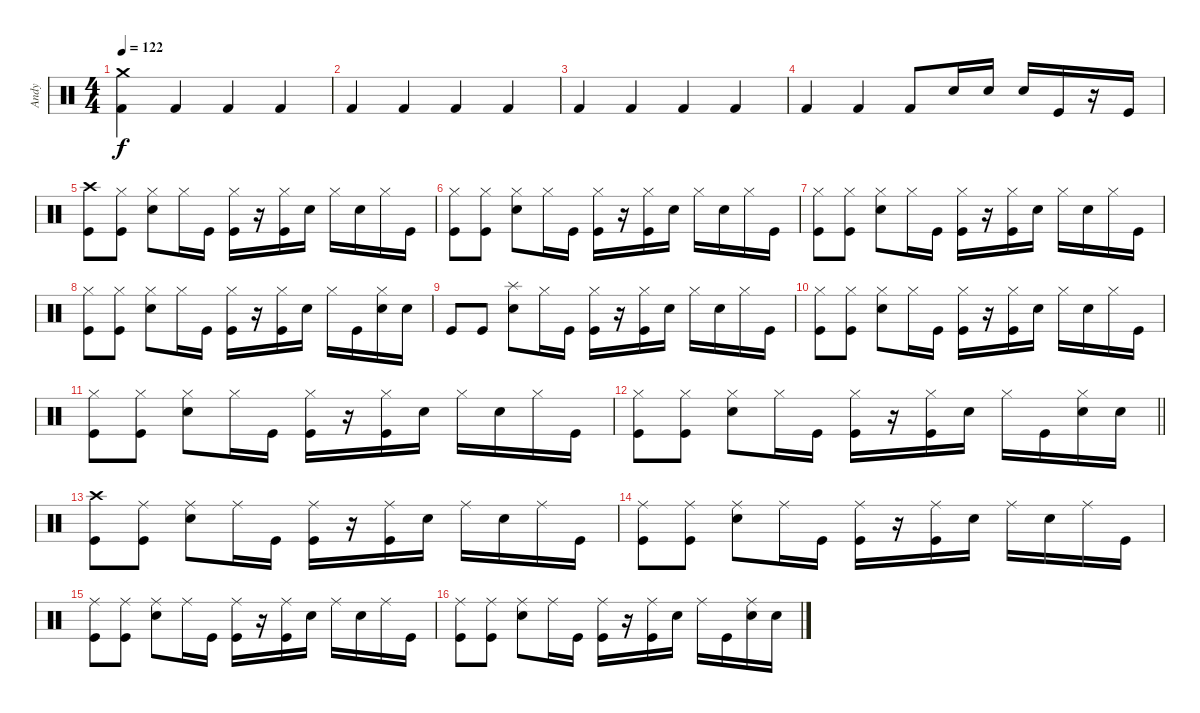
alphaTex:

\track ("Andy" "Andy") {instrument percussion}
\staff {score}
\articulation defaults
\ts (4 4)
\tempo 122
\clef neutral
\ks c
("Crash medium (hit)" "Kick (hit) 2").4{dy f} "Kick (hit) 2".4 "Kick (hit) 2".4 "Kick (hit) 2".4 |
"Kick (hit) 2".4 "Kick (hit) 2".4 "Kick (hit) 2".4 "Kick (hit) 2".4 |
"Kick (hit) 2".4 "Kick (hit) 2".4 "Kick (hit) 2".4 "Kick (hit) 2".4 |
"Kick (hit) 2".4 "Kick (hit) 2".4 "Kick (hit) 2".8 "Snare (hit) 2".16 "Snare (hit) 2".16 "Snare (hit) 2".16 "Kick (hit)".16 r.16 "Kick (hit)".16 |
("Kick (hit)" "Crash high (hit)").8 ("Hi-Hat (closed)" "Kick (hit)").8 ("Snare (hit) 2" "Hi-Hat (closed)").8 "Hi-Hat (closed)".16 "Kick (hit)".16 ("Kick (hit)" "Hi-Hat (closed)").16 r.16 ("Kick (hit)" "Hi-Hat (closed)").16 "Snare (hit) 2".16 "Hi-Hat (closed)".16 "Snare (hit) 2".16 "Hi-Hat (closed)".16 "Kick (hit)".16 |
("Kick (hit)" "Hi-Hat (closed)").8 ("Hi-Hat (closed)" "Kick (hit)").8 ("Snare (hit) 2" "Hi-Hat (closed)").8 "Hi-Hat (closed)".16 "Kick (hit)".16 ("Kick (hit)" "Hi-Hat (closed)").16 r.16 ("Kick (hit)" "Hi-Hat (closed)").16 "Snare (hit) 2".16 "Hi-Hat (closed)".16 "Snare (hit) 2".16 "Hi-Hat (closed)".16 "Kick (hit)".16 |
("Kick (hit)" "Hi-Hat (closed)").8 ("Hi-Hat (closed)" "Kick (hit)").8 ("Snare (hit) 2" "Hi-Hat (closed)").8 "Hi-Hat (closed)".16 "Kick (hit)".16 ("Kick (hit)" "Hi-Hat (closed)").16 r.16 ("Kick (hit)" "Hi-Hat (closed)").16 "Snare (hit) 2".16 "Hi-Hat (closed)".16 "Snare (hit) 2".16 "Hi-Hat (closed)".16 "Kick (hit)".16 |
("Kick (hit)" "Hi-Hat (closed)").8 ("Hi-Hat (closed)" "Kick (hit)").8 ("Snare (hit) 2" "Hi-Hat (closed)").8 "Hi-Hat (closed)".16 "Kick (hit)".16 ("Kick (hit)" "Hi-Hat (closed)").16 r.16 ("Kick (hit)" "Hi-Hat (closed)").16 "Snare (hit) 2".16 "Hi-Hat (closed)".16 "Kick (hit)".16 ("Hi-Hat (closed)" "Snare (hit) 2").16 "Snare (hit) 2".16 |
"Kick (hit)".8 "Kick (hit)".8 ("Snare (hit) 2" "Splash (hit)").8 "Hi-Hat (closed)".16 "Kick (hit)".16 ("Kick (hit)" "Hi-Hat (closed)").16 r.16 ("Kick (hit)" "Hi-Hat (closed)").16 "Snare (hit) 2".16 "Hi-Hat (closed)".16 "Snare (hit) 2".16 "Hi-Hat (closed)".16 "Kick (hit)".16 |
("Kick (hit)" "Hi-Hat (closed)").8 ("Hi-Hat (closed)" "Kick (hit)").8 ("Snare (hit) 2" "Hi-Hat (closed)").8 "Hi-Hat (closed)".16 "Kick (hit)".16 ("Kick (hit)" "Hi-Hat (closed)").16 r.16 ("Kick (hit)" "Hi-Hat (closed)").16 "Snare (hit) 2".16 "Hi-Hat (closed)".16 "Snare (hit) 2".16 "Hi-Hat (closed)".16 "Kick (hit)".16 |
("Kick (hit)" "Hi-Hat (closed)").8 ("Hi-Hat (closed)" "Kick (hit)").8 ("Snare (hit) 2" "Hi-Hat (closed)").8 "Hi-Hat (closed)".16 "Kick (hit)".16 ("Kick (hit)" "Hi-Hat (closed)").16 r.16 ("Kick (hit)" "Hi-Hat (closed)").16 "Snare (hit) 2".16 "Hi-Hat (closed)".16 "Snare (hit) 2".16 "Hi-Hat (closed)".16 "Kick (hit)".16 |
\barLineRight lightlight
("Kick (hit)" "Hi-Hat (closed)").8 ("Hi-Hat (closed)" "Kick (hit)").8 ("Snare (hit) 2" "Hi-Hat (closed)").8 "Hi-Hat (closed)".16 "Kick (hit)".16 ("Kick (hit)" "Hi-Hat (closed)").16 r.16 ("Kick (hit)" "Hi-Hat (closed)").16 "Snare (hit) 2".16 "Hi-Hat (closed)".16 "Kick (hit)".16 ("Hi-Hat (closed)" "Snare (hit) 2").16 "Snare (hit) 2".16 |
\section ("" "")
("Kick (hit)" "Crash high (hit)").8 ("Ride (middle)" "Kick (hit)").8 ("Snare (hit) 2" "Ride (middle)").8 "Ride (middle)".16 "Kick (hit)".16 ("Kick (hit)" "Ride (middle)").16 r.16 ("Ride (middle)" "Kick (hit)").16 "Snare (hit) 2".16 "Ride (middle)".16 "Snare (hit) 2".16 "Ride (middle)".16 "Kick (hit)".16 |
("Kick (hit)" "Ride (middle)").8 ("Ride (middle)" "Kick (hit)").8 ("Snare (hit) 2" "Ride (middle)").8 "Ride (middle)".16 "Kick (hit)".16 ("Kick (hit)" "Ride (middle)").16 r.16 ("Ride (middle)" "Kick (hit)").16 "Snare (hit) 2".16 "Ride (middle)".16 "Snare (hit) 2".16 "Ride (middle)".16 "Kick (hit)".16 |
("Kick (hit)" "Ride (middle)").8 ("Ride (middle)" "Kick (hit)").8 ("Snare (hit) 2" "Ride (middle)").8 "Ride (middle)".16 "Kick (hit)".16 ("Kick (hit)" "Ride (middle)").16 r.16 ("Ride (middle)" "Kick (hit)").16 "Snare (hit) 2".16 "Ride (middle)".16 "Snare (hit) 2".16 "Ride (middle)".16 "Kick (hit)".16 |
("Kick (hit)" "Ride (middle)").8 ("Ride (middle)" "Kick (hit)").8 ("Snare (hit) 2" "Ride (middle)").8 "Ride (middle)".16 "Kick (hit)".16 ("Kick (hit)" "Ride (middle)").16 r.16 ("Ride (middle)" "Kick (hit)").16 "Snare (hit) 2".16 "Ride (middle)".16 "Kick (hit)".16 ("Ride (middle)" "Snare (hit) 2").16 "Snare (hit) 2".16
